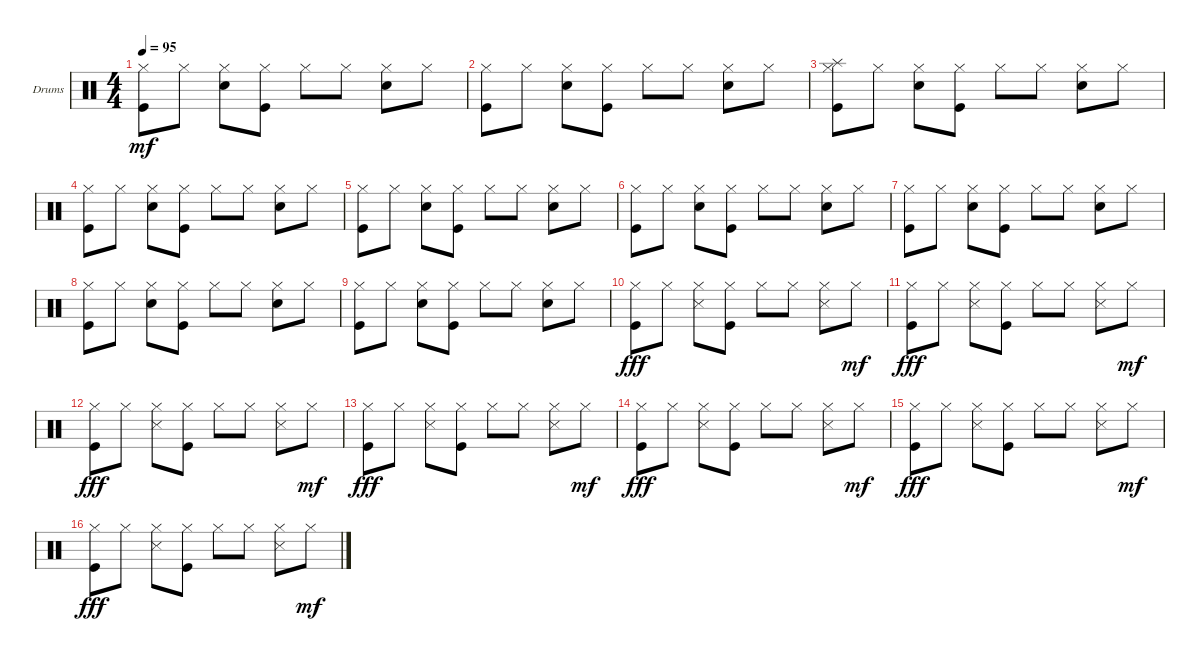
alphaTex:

\bracketExtendMode groupsimilarinstruments
\firstSystemTrackNameOrientation horizontal
\otherSystemsTrackNameOrientation horizontal
\track ("Drumkit" "Drums") {instrument percussion}
\staff {score}
\articulation defaults
\ts (4 4)
\tempo 95
\clef neutral
\ks c
("Hi-Hat (closed)" "Kick (hit)").8{dy mf} "Hi-Hat (closed)".8 ("Hi-Hat (closed)" "Snare (hit) 2").8 ("Hi-Hat (closed)" "Kick (hit)").8 "Hi-Hat (closed)".8 "Hi-Hat (closed)".8 ("Hi-Hat (closed)" "Snare (hit) 2").8 "Hi-Hat (closed)".8 |
("Hi-Hat (closed)" "Kick (hit)").8 "Hi-Hat (closed)".8 ("Hi-Hat (closed)" "Snare (hit) 2").8 ("Hi-Hat (closed)" "Kick (hit)").8 "Hi-Hat (closed)".8 "Hi-Hat (closed)".8 ("Hi-Hat (closed)" "Snare (hit) 2").8 "Hi-Hat (closed)".8 |
("Hi-Hat (closed)" "Kick (hit)" "Splash (hit)").8 "Hi-Hat (closed)".8 ("Hi-Hat (closed)" "Snare (hit) 2").8 ("Hi-Hat (closed)" "Kick (hit)").8 "Hi-Hat (closed)".8 "Hi-Hat (closed)".8 ("Hi-Hat (closed)" "Snare (hit) 2").8 "Hi-Hat (closed)".8 |
("Hi-Hat (closed)" "Kick (hit)").8 "Hi-Hat (closed)".8 ("Hi-Hat (closed)" "Snare (hit) 2").8 ("Hi-Hat (closed)" "Kick (hit)").8 "Hi-Hat (closed)".8 "Hi-Hat (closed)".8 ("Hi-Hat (closed)" "Snare (hit) 2").8 "Hi-Hat (closed)".8 |
("Hi-Hat (closed)" "Kick (hit)").8 "Hi-Hat (closed)".8 ("Hi-Hat (closed)" "Snare (hit) 2").8 ("Hi-Hat (closed)" "Kick (hit)").8 "Hi-Hat (closed)".8 "Hi-Hat (closed)".8 ("Hi-Hat (closed)" "Snare (hit) 2").8 "Hi-Hat (closed)".8 |
("Hi-Hat (closed)" "Kick (hit)").8 "Hi-Hat (closed)".8 ("Hi-Hat (closed)" "Snare (hit) 2").8 ("Hi-Hat (closed)" "Kick (hit)").8 "Hi-Hat (closed)".8 "Hi-Hat (closed)".8 ("Hi-Hat (closed)" "Snare (hit) 2").8 "Hi-Hat (closed)".8 |
("Hi-Hat (closed)" "Kick (hit)").8 "Hi-Hat (closed)".8 ("Hi-Hat (closed)" "Snare (hit) 2").8 ("Hi-Hat (closed)" "Kick (hit)").8 "Hi-Hat (closed)".8 "Hi-Hat (closed)".8 ("Hi-Hat (closed)" "Snare (hit) 2").8 "Hi-Hat (closed)".8 |
("Hi-Hat (closed)" "Kick (hit)").8 "Hi-Hat (closed)".8 ("Hi-Hat (closed)" "Snare (hit) 2").8 ("Hi-Hat (closed)" "Kick (hit)").8 "Hi-Hat (closed)".8 "Hi-Hat (closed)".8 ("Hi-Hat (closed)" "Snare (hit) 2").8 "Hi-Hat (closed)".8 |
("Hi-Hat (closed)" "Kick (hit)").8 "Hi-Hat (closed)".8 ("Hi-Hat (closed)" "Snare (hit) 2").8 ("Hi-Hat (closed)" "Kick (hit)").8 "Hi-Hat (closed)".8 "Hi-Hat (closed)".8 ("Hi-Hat (closed)" "Snare (hit) 2").8 "Hi-Hat (closed)".8 |
("Kick (hit)" "Hi-Hat (closed)").8{dy fff} "Hi-Hat (closed)".8 ("Snare (side stick) 3" "Hi-Hat (closed)").8 ("Kick (hit)" "Hi-Hat (closed)").8 "Hi-Hat (closed)".8 "Hi-Hat (closed)".8 ("Snare (side stick) 3" "Hi-Hat (closed)").8 "Hi-Hat (closed)".8{dy mf} |
("Kick (hit)" "Hi-Hat (closed)").8{dy fff} "Hi-Hat (closed)".8 ("Snare (side stick) 3" "Hi-Hat (closed)").8 ("Kick (hit)" "Hi-Hat (closed)").8 "Hi-Hat (closed)".8 "Hi-Hat (closed)".8 ("Snare (side stick) 3" "Hi-Hat (closed)").8 "Hi-Hat (closed)".8{dy mf} |
("Kick (hit)" "Hi-Hat (closed)").8{dy fff} "Hi-Hat (closed)".8 ("Snare (side stick) 3" "Hi-Hat (closed)").8 ("Kick (hit)" "Hi-Hat (closed)").8 "Hi-Hat (closed)".8 "Hi-Hat (closed)".8 ("Snare (side stick) 3" "Hi-Hat (closed)").8 "Hi-Hat (closed)".8{dy mf} |
("Kick (hit)" "Hi-Hat (closed)").8{dy fff} "Hi-Hat (closed)".8 ("Snare (side stick) 3" "Hi-Hat (closed)").8 ("Kick (hit)" "Hi-Hat (closed)").8 "Hi-Hat (closed)".8 "Hi-Hat (closed)".8 ("Snare (side stick) 3" "Hi-Hat (closed)").8 "Hi-Hat (closed)".8{dy mf} |
("Kick (hit)" "Hi-Hat (closed)").8{dy fff} "Hi-Hat (closed)".8 ("Snare (side stick) 3" "Hi-Hat (closed)").8 ("Kick (hit)" "Hi-Hat (closed)").8 "Hi-Hat (closed)".8 "Hi-Hat (closed)".8 ("Snare (side stick) 3" "Hi-Hat (closed)").8 "Hi-Hat (closed)".8{dy mf} |
("Kick (hit)" "Hi-Hat (closed)").8{dy fff} "Hi-Hat (closed)".8 ("Snare (side stick) 3" "Hi-Hat (closed)").8 ("Kick (hit)" "Hi-Hat (closed)").8 "Hi-Hat (closed)".8 "Hi-Hat (closed)".8 ("Snare (side stick) 3" "Hi-Hat (closed)").8 "Hi-Hat (closed)".8{dy mf} |
("Kick (hit)" "Hi-Hat (closed)").8{dy fff} "Hi-Hat (closed)".8 ("Snare (side stick) 3" "Hi-Hat (closed)").8 ("Kick (hit)" "Hi-Hat (closed)").8 "Hi-Hat (closed)".8 "Hi-Hat (closed)".8 ("Snare (side stick) 3" "Hi-Hat (closed)").8 "Hi-Hat (closed)".8{dy mf}
